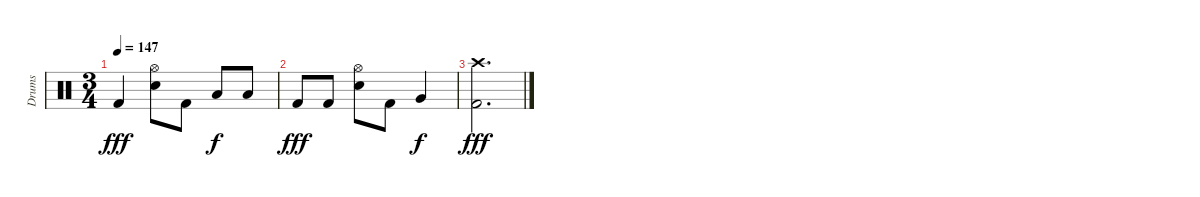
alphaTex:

\track ("Drums" "Drums") {instrument percussion}
\staff {score}
\articulation defaults
\ts (3 4)
\tempo 147
\clef neutral
\ks c "Kick (hit) 2".4{dy fff}
("Hi-Hat (open)" "Electric Snare (hit)").8 "Kick (hit) 2".8 "Low Tom (hit)".8{dy f} "Low Tom (hit)".8 |
"Kick (hit) 2".8{dy fff} "Kick (hit) 2".8 ("Hi-Hat (open)" "Electric Snare (hit)").8 "Kick (hit) 2".8 "Very Low Tom (hit)".4{dy f} |
("Crash high (hit)" "Kick (hit) 2").2{d dy fff}
